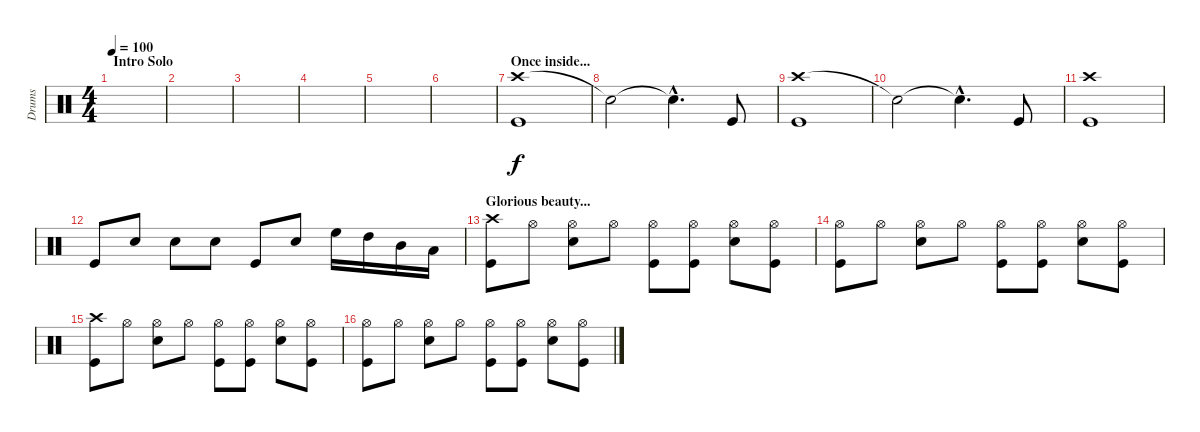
\track ("Drums" "Drums") {instrument percussion}
\staff {score}
\articulation defaults
\ts (4 4)
\section ("" "Intro Solo")
\tempo 100
\clef neutral
\ks c
|
|
|
|
|
|
\section ("" "Once inside...")
("Crash high (hit)" "Kick (hit)").1 |
"Snare (hit)"{t}.2 "Snare (hit)"{hac t}.4{d} "Kick (hit)".8 |
("Crash high (hit)" "Kick (hit)").1 |
"Snare (hit)"{t}.2 "Snare (hit)"{hac t}.4{d} "Kick (hit)".8 |
("Crash high (hit)" "Kick (hit)").1 |
"Kick (hit)".8 "Snare (hit) 2".8 "Snare (hit) 2".8 "Snare (hit) 2".8 "Kick (hit)".8 "Snare (hit) 2".8 "High Floor Tom (hit)".16 "High Tom (hit)".16 "Mid Tom (hit)".16 "Low Tom (hit)".16 |
\section ("" "Glorious beauty...")
("Crash high (hit)" "Kick (hit)").8 "Hi-Hat (open)".8 ("Hi-Hat (open)" "Snare (hit) 2").8 "Hi-Hat (open)".8 ("Hi-Hat (open)" "Kick (hit)").8 ("Hi-Hat (open)" "Kick (hit)").8 ("Hi-Hat (open)" "Snare (hit) 2").8 ("Hi-Hat (open)" "Kick (hit)").8 |
("Hi-Hat (open)" "Kick (hit)").8 "Hi-Hat (open)".8 ("Hi-Hat (open)" "Snare (hit) 2").8 "Hi-Hat (open)".8 ("Hi-Hat (open)" "Kick (hit)").8 ("Hi-Hat (open)" "Kick (hit)").8 ("Hi-Hat (open)" "Snare (hit) 2").8 ("Hi-Hat (open)" "Kick (hit)").8 |
("Crash high (hit)" "Kick (hit)").8 "Hi-Hat (open)".8 ("Hi-Hat (open)" "Snare (hit) 2").8 "Hi-Hat (open)".8 ("Hi-Hat (open)" "Kick (hit)").8 ("Hi-Hat (open)" "Kick (hit)").8 ("Hi-Hat (open)" "Snare (hit) 2").8 ("Hi-Hat (open)" "Kick (hit)").8 |
("Hi-Hat (open)" "Kick (hit)").8 "Hi-Hat (open)".8 ("Hi-Hat (open)" "Snare (hit) 2").8 "Hi-Hat (open)".8 ("Hi-Hat (open)" "Kick (hit)").8 ("Hi-Hat (open)" "Kick (hit)").8 ("Hi-Hat (open)" "Snare (hit) 2").8 ("Hi-Hat (open)" "Kick (hit)").8
